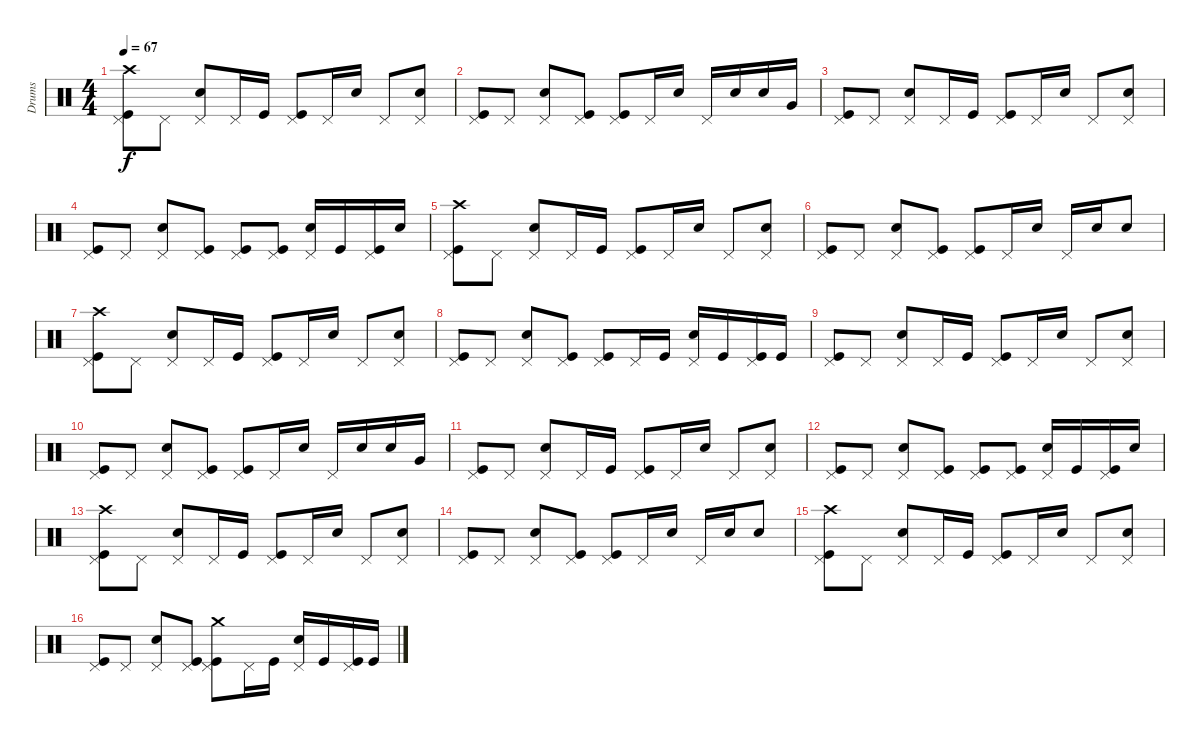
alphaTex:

\track ("Drums" "Drums") {instrument percussion}
\staff {score}
\articulation defaults
\ts (4 4)
\tempo 67
\clef neutral
\ks c
("Kick (hit)" "Pedal Hi-Hat (hit)" "Crash high (hit)").8{dy f} "Pedal Hi-Hat (hit)".8 ("Snare (hit) 2" "Pedal Hi-Hat (hit)").8 "Pedal Hi-Hat (hit)".16 "Kick (hit)".16 ("Kick (hit)" "Pedal Hi-Hat (hit)").8 "Pedal Hi-Hat (hit)".16 "Snare (hit) 2".16 "Pedal Hi-Hat (hit)".8 ("Snare (hit) 2" "Pedal Hi-Hat (hit)").8 |
("Kick (hit)" "Pedal Hi-Hat (hit)").8 "Pedal Hi-Hat (hit)".8 ("Snare (hit) 2" "Pedal Hi-Hat (hit)").8 ("Kick (hit)" "Pedal Hi-Hat (hit)").8 ("Kick (hit)" "Pedal Hi-Hat (hit)").8 "Pedal Hi-Hat (hit)".16 "Snare (hit) 2".16 "Pedal Hi-Hat (hit)".16 "Snare (hit) 2".16 "Snare (hit) 2".16 "Very Low Tom (hit)".16 |
("Kick (hit)" "Pedal Hi-Hat (hit)").8 "Pedal Hi-Hat (hit)".8 ("Snare (hit) 2" "Pedal Hi-Hat (hit)").8 "Pedal Hi-Hat (hit)".16 "Kick (hit)".16 ("Kick (hit)" "Pedal Hi-Hat (hit)").8 "Pedal Hi-Hat (hit)".16 "Snare (hit) 2".16 "Pedal Hi-Hat (hit)".8 ("Snare (hit) 2" "Pedal Hi-Hat (hit)").8 |
("Kick (hit)" "Pedal Hi-Hat (hit)").8 "Pedal Hi-Hat (hit)".8 ("Snare (hit) 2" "Pedal Hi-Hat (hit)").8 ("Kick (hit)" "Pedal Hi-Hat (hit)").8 ("Kick (hit)" "Pedal Hi-Hat (hit)").8 ("Kick (hit)" "Pedal Hi-Hat (hit)").8 ("Snare (hit) 2" "Pedal Hi-Hat (hit)").16 "Kick (hit)".16 ("Kick (hit)" "Pedal Hi-Hat (hit)").16 "Snare (hit) 2".16 |
("Kick (hit)" "Pedal Hi-Hat (hit)" "Crash high (hit)").8 "Pedal Hi-Hat (hit)".8 ("Snare (hit) 2" "Pedal Hi-Hat (hit)").8 "Pedal Hi-Hat (hit)".16 "Kick (hit)".16 ("Kick (hit)" "Pedal Hi-Hat (hit)").8 "Pedal Hi-Hat (hit)".16 "Snare (hit) 2".16 "Pedal Hi-Hat (hit)".8 ("Snare (hit) 2" "Pedal Hi-Hat (hit)").8 |
("Kick (hit)" "Pedal Hi-Hat (hit)").8 "Pedal Hi-Hat (hit)".8 ("Snare (hit) 2" "Pedal Hi-Hat (hit)").8 ("Kick (hit)" "Pedal Hi-Hat (hit)").8 ("Kick (hit)" "Pedal Hi-Hat (hit)").8 "Pedal Hi-Hat (hit)".16 "Snare (hit) 2".16 "Pedal Hi-Hat (hit)".16 "Snare (hit) 2".16 "Snare (hit) 2".8 |
("Kick (hit)" "Pedal Hi-Hat (hit)" "Crash high (hit)").8 "Pedal Hi-Hat (hit)".8 ("Snare (hit) 2" "Pedal Hi-Hat (hit)").8 "Pedal Hi-Hat (hit)".16 "Kick (hit)".16 ("Kick (hit)" "Pedal Hi-Hat (hit)").8 "Pedal Hi-Hat (hit)".16 "Snare (hit) 2".16 "Pedal Hi-Hat (hit)".8 ("Snare (hit) 2" "Pedal Hi-Hat (hit)").8 |
("Kick (hit)" "Pedal Hi-Hat (hit)").8 "Pedal Hi-Hat (hit)".8 ("Snare (hit) 2" "Pedal Hi-Hat (hit)").8 ("Kick (hit)" "Pedal Hi-Hat (hit)").8 ("Kick (hit)" "Pedal Hi-Hat (hit)").8 "Pedal Hi-Hat (hit)".16 "Kick (hit)".16 ("Snare (hit) 2" "Pedal Hi-Hat (hit)").16 "Kick (hit)".16 ("Kick (hit)" "Pedal Hi-Hat (hit)").16 "Kick (hit)".16 |
("Kick (hit)" "Pedal Hi-Hat (hit)").8 "Pedal Hi-Hat (hit)".8 ("Snare (hit) 2" "Pedal Hi-Hat (hit)").8 "Pedal Hi-Hat (hit)".16 "Kick (hit)".16 ("Kick (hit)" "Pedal Hi-Hat (hit)").8 "Pedal Hi-Hat (hit)".16 "Snare (hit) 2".16 "Pedal Hi-Hat (hit)".8 ("Snare (hit) 2" "Pedal Hi-Hat (hit)").8 |
("Kick (hit)" "Pedal Hi-Hat (hit)").8 "Pedal Hi-Hat (hit)".8 ("Snare (hit) 2" "Pedal Hi-Hat (hit)").8 ("Kick (hit)" "Pedal Hi-Hat (hit)").8 ("Kick (hit)" "Pedal Hi-Hat (hit)").8 "Pedal Hi-Hat (hit)".16 "Snare (hit) 2".16 "Pedal Hi-Hat (hit)".16 "Snare (hit) 2".16 "Snare (hit) 2".16 "Very Low Tom (hit)".16 |
("Kick (hit)" "Pedal Hi-Hat (hit)").8 "Pedal Hi-Hat (hit)".8 ("Snare (hit) 2" "Pedal Hi-Hat (hit)").8 "Pedal Hi-Hat (hit)".16 "Kick (hit)".16 ("Kick (hit)" "Pedal Hi-Hat (hit)").8 "Pedal Hi-Hat (hit)".16 "Snare (hit) 2".16 "Pedal Hi-Hat (hit)".8 ("Snare (hit) 2" "Pedal Hi-Hat (hit)").8 |
("Kick (hit)" "Pedal Hi-Hat (hit)").8 "Pedal Hi-Hat (hit)".8 ("Snare (hit) 2" "Pedal Hi-Hat (hit)").8 ("Kick (hit)" "Pedal Hi-Hat (hit)").8 ("Kick (hit)" "Pedal Hi-Hat (hit)").8 ("Kick (hit)" "Pedal Hi-Hat (hit)").8 ("Snare (hit) 2" "Pedal Hi-Hat (hit)").16 "Kick (hit)".16 ("Kick (hit)" "Pedal Hi-Hat (hit)").16 "Snare (hit) 2".16 |
("Kick (hit)" "Pedal Hi-Hat (hit)" "Crash high (hit)").8 "Pedal Hi-Hat (hit)".8 ("Snare (hit) 2" "Pedal Hi-Hat (hit)").8 "Pedal Hi-Hat (hit)".16 "Kick (hit)".16 ("Kick (hit)" "Pedal Hi-Hat (hit)").8 "Pedal Hi-Hat (hit)".16 "Snare (hit) 2".16 "Pedal Hi-Hat (hit)".8 ("Snare (hit) 2" "Pedal Hi-Hat (hit)").8 |
("Kick (hit)" "Pedal Hi-Hat (hit)").8 "Pedal Hi-Hat (hit)".8 ("Snare (hit) 2" "Pedal Hi-Hat (hit)").8 ("Kick (hit)" "Pedal Hi-Hat (hit)").8 ("Kick (hit)" "Pedal Hi-Hat (hit)").8 "Pedal Hi-Hat (hit)".16 "Snare (hit) 2".16 "Pedal Hi-Hat (hit)".16 "Snare (hit) 2".16 "Snare (hit) 2".8 |
("Kick (hit)" "Pedal Hi-Hat (hit)" "Crash high (hit)").8 "Pedal Hi-Hat (hit)".8 ("Snare (hit) 2" "Pedal Hi-Hat (hit)").8 "Pedal Hi-Hat (hit)".16 "Kick (hit)".16 ("Kick (hit)" "Pedal Hi-Hat (hit)").8 "Pedal Hi-Hat (hit)".16 "Snare (hit) 2".16 "Pedal Hi-Hat (hit)".8 ("Snare (hit) 2" "Pedal Hi-Hat (hit)").8 |
("Kick (hit)" "Pedal Hi-Hat (hit)").8 "Pedal Hi-Hat (hit)".8 ("Snare (hit) 2" "Pedal Hi-Hat (hit)").8 ("Kick (hit)" "Pedal Hi-Hat (hit)").8 ("Kick (hit)" "Pedal Hi-Hat (hit)" "Crash medium (hit)").8 "Pedal Hi-Hat (hit)".16 "Kick (hit)".16 ("Snare (hit) 2" "Pedal Hi-Hat (hit)").16 "Kick (hit)".16 ("Kick (hit)" "Pedal Hi-Hat (hit)").16 "Kick (hit)".16
